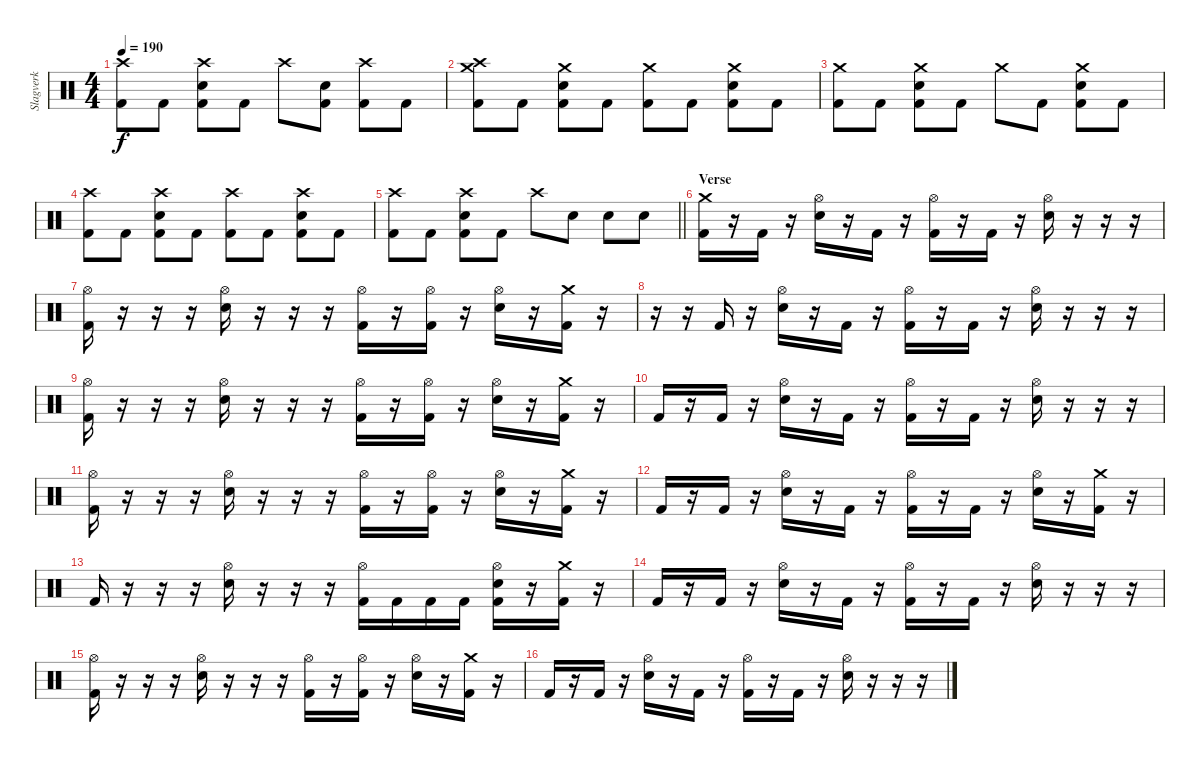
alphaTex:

\track ("Slagverk" "Slagverk") {instrument percussion}
\staff {score}
\articulation defaults
\ts (4 4)
\tempo 190
\clef neutral
\ks c
("Crash high (hit)" "Kick (hit) 2").8{dy f} "Kick (hit) 2".8 ("Crash high (hit)" "Electric Snare (hit)" "Kick (hit) 2").8 "Kick (hit) 2".8 "Crash high (hit)".8 ("Electric Snare (hit)" "Kick (hit) 2").8 ("Crash high (hit)" "Kick (hit) 2").8 "Kick (hit) 2".8 |
("Crash medium (hit)" "Crash high (hit)" "Kick (hit) 2").8 "Kick (hit) 2".8 ("Crash medium (hit)" "Electric Snare (hit)" "Kick (hit) 2").8 "Kick (hit) 2".8 ("Crash medium (hit)" "Kick (hit) 2").8 "Kick (hit) 2".8 ("Crash medium (hit)" "Electric Snare (hit)" "Kick (hit) 2").8 "Kick (hit) 2".8 |
("Crash medium (hit)" "Kick (hit) 2").8 "Kick (hit) 2".8 ("Crash medium (hit)" "Electric Snare (hit)" "Kick (hit) 2").8 "Kick (hit) 2".8 "Crash medium (hit)".8 "Kick (hit) 2".8 ("Crash medium (hit)" "Electric Snare (hit)" "Kick (hit) 2").8 "Kick (hit) 2".8 |
("Crash high (hit)" "Kick (hit) 2").8 "Kick (hit) 2".8 ("Crash high (hit)" "Electric Snare (hit)" "Kick (hit) 2").8 "Kick (hit) 2".8 ("Crash high (hit)" "Kick (hit) 2").8 "Kick (hit) 2".8 ("Crash high (hit)" "Electric Snare (hit)" "Kick (hit) 2").8 "Kick (hit) 2".8 |
\barLineRight lightlight
("Crash high (hit)" "Kick (hit) 2").8 "Kick (hit) 2".8 ("Crash high (hit)" "Electric Snare (hit)" "Kick (hit) 2").8 "Kick (hit) 2".8 "Crash high (hit)".8 "Electric Snare (hit)".8 "Electric Snare (hit)".8 "Electric Snare (hit)".8 |
\section ("" "Verse")
("Crash medium (hit)" "Kick (hit) 2").16 r.16 "Kick (hit) 2".16 r.16 ("Electric Snare (hit)" "Hi-Hat (open)").16 r.16 "Kick (hit) 2".16 r.16 ("Hi-Hat (open)" "Kick (hit) 2").16 r.16 "Kick (hit) 2".16 r.16 ("Electric Snare (hit)" "Hi-Hat (open)").16 r.16 r.16 r.16 |
("Hi-Hat (open)" "Kick (hit) 2").16 r.16 r.16 r.16 ("Electric Snare (hit)" "Hi-Hat (open)").16 r.16 r.16 r.16 ("Hi-Hat (open)" "Kick (hit) 2").16 r.16 ("Hi-Hat (open)" "Kick (hit) 2").16 r.16 ("Electric Snare (hit)" "Hi-Hat (open)").16 r.16 ("Crash medium (hit)" "Kick (hit) 2").16 r.16 |
r.16 r.16 "Kick (hit) 2".16 r.16 ("Electric Snare (hit)" "Hi-Hat (open)").16 r.16 "Kick (hit) 2".16 r.16 ("Hi-Hat (open)" "Kick (hit) 2").16 r.16 "Kick (hit) 2".16 r.16 ("Electric Snare (hit)" "Hi-Hat (open)").16 r.16 r.16 r.16 |
("Hi-Hat (open)" "Kick (hit) 2").16 r.16 r.16 r.16 ("Electric Snare (hit)" "Hi-Hat (open)").16 r.16 r.16 r.16 ("Hi-Hat (open)" "Kick (hit) 2").16 r.16 ("Hi-Hat (open)" "Kick (hit) 2").16 r.16 ("Electric Snare (hit)" "Hi-Hat (open)").16 r.16 ("Crash medium (hit)" "Kick (hit) 2").16 r.16 |
"Kick (hit) 2".16 r.16 "Kick (hit) 2".16 r.16 ("Electric Snare (hit)" "Hi-Hat (open)").16 r.16 "Kick (hit) 2".16 r.16 ("Hi-Hat (open)" "Kick (hit) 2").16 r.16 "Kick (hit) 2".16 r.16 ("Electric Snare (hit)" "Hi-Hat (open)").16 r.16 r.16 r.16 |
("Hi-Hat (open)" "Kick (hit) 2").16 r.16 r.16 r.16 ("Electric Snare (hit)" "Hi-Hat (open)").16 r.16 r.16 r.16 ("Hi-Hat (open)" "Kick (hit) 2").16 r.16 ("Hi-Hat (open)" "Kick (hit) 2").16 r.16 ("Electric Snare (hit)" "Hi-Hat (open)").16 r.16 ("Crash medium (hit)" "Kick (hit) 2").16 r.16 |
"Kick (hit) 2".16 r.16 "Kick (hit) 2".16 r.16 ("Electric Snare (hit)" "Hi-Hat (open)").16 r.16 "Kick (hit) 2".16 r.16 ("Hi-Hat (open)" "Kick (hit) 2").16 r.16 "Kick (hit) 2".16 r.16 ("Electric Snare (hit)" "Hi-Hat (open)").16 r.16 ("Crash medium (hit)" "Kick (hit) 2").16 r.16 |
"Kick (hit) 2".16 r.16 r.16 r.16 ("Electric Snare (hit)" "Hi-Hat (open)").16 r.16 r.16 r.16 ("Hi-Hat (open)" "Kick (hit) 2").16 "Kick (hit) 2".16 "Kick (hit) 2".16 "Kick (hit) 2".16 ("Electric Snare (hit)" "Hi-Hat (open)" "Kick (hit) 2").16 r.16 ("Crash medium (hit)" "Kick (hit) 2").16 r.16 |
"Kick (hit) 2".16 r.16 "Kick (hit) 2".16 r.16 ("Electric Snare (hit)" "Hi-Hat (open)").16 r.16 "Kick (hit) 2".16 r.16 ("Hi-Hat (open)" "Kick (hit) 2").16 r.16 "Kick (hit) 2".16 r.16 ("Electric Snare (hit)" "Hi-Hat (open)").16 r.16 r.16 r.16 |
("Hi-Hat (open)" "Kick (hit) 2").16 r.16 r.16 r.16 ("Electric Snare (hit)" "Hi-Hat (open)").16 r.16 r.16 r.16 ("Hi-Hat (open)" "Kick (hit) 2").16 r.16 ("Hi-Hat (open)" "Kick (hit) 2").16 r.16 ("Electric Snare (hit)" "Hi-Hat (open)").16 r.16 ("Crash medium (hit)" "Kick (hit) 2").16 r.16 |
"Kick (hit) 2".16 r.16 "Kick (hit) 2".16 r.16 ("Electric Snare (hit)" "Hi-Hat (open)").16 r.16 "Kick (hit) 2".16 r.16 ("Hi-Hat (open)" "Kick (hit) 2").16 r.16 "Kick (hit) 2".16 r.16 ("Electric Snare (hit)" "Hi-Hat (open)").16 r.16 r.16 r.16
